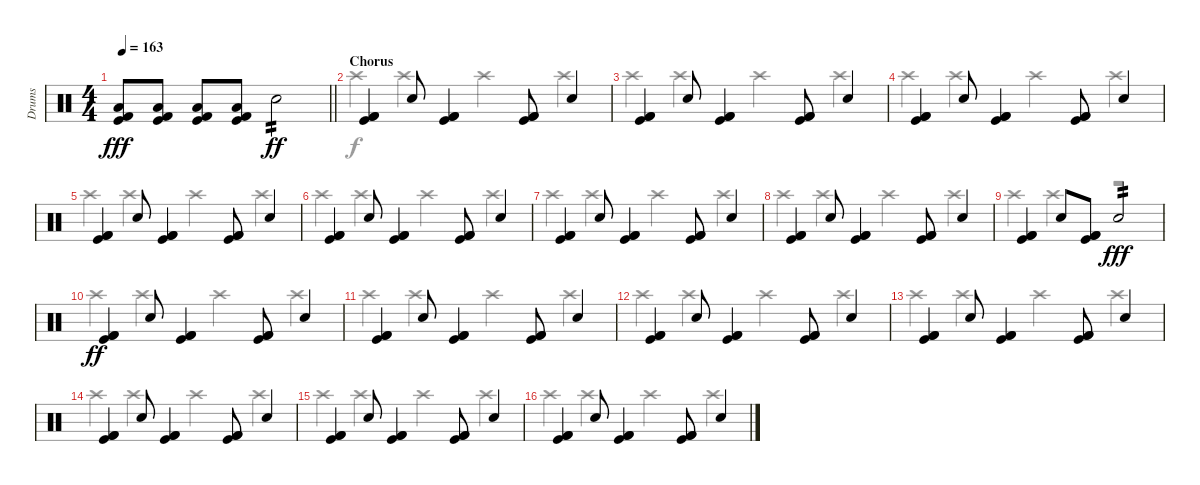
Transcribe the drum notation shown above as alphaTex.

\track ("Drums" "Drums") {instrument percussion}
\staff {score}
\articulation defaults
\voice
\ts (4 4)
\tempo 163
\clef neutral
\barLineRight lightlight
\ks c
("Low Tom (hit)" "Kick (hit)" "Kick (hit) 2").8{dy fff} ("Low Tom (hit)" "Kick (hit)" "Kick (hit) 2").8 ("Low Tom (hit)" "Kick (hit)" "Kick (hit) 2").8 ("Low Tom (hit)" "Kick (hit)" "Kick (hit) 2").8 "Electric Snare (hit)".2{tp 2 dy ff} |
\section ("" "Chorus")
("Kick (hit) 2" "Kick (hit) 2" "Kick (hit)").4 "Electric Snare (hit)".8 ("Kick (hit) 2" "Kick (hit) 2" "Kick (hit)").4 ("Kick (hit) 2" "Kick (hit) 2" "Kick (hit)").8 "Electric Snare (hit)".4 |
("Kick (hit) 2" "Kick (hit) 2" "Kick (hit)").4 "Electric Snare (hit)".8 ("Kick (hit) 2" "Kick (hit) 2" "Kick (hit)").4 ("Kick (hit) 2" "Kick (hit) 2" "Kick (hit)").8 "Electric Snare (hit)".4 |
("Kick (hit) 2" "Kick (hit) 2" "Kick (hit)").4 "Electric Snare (hit)".8 ("Kick (hit) 2" "Kick (hit) 2" "Kick (hit)").4 ("Kick (hit) 2" "Kick (hit) 2" "Kick (hit)").8 "Electric Snare (hit)".4 |
("Kick (hit) 2" "Kick (hit) 2" "Kick (hit)").4 "Electric Snare (hit)".8 ("Kick (hit) 2" "Kick (hit) 2" "Kick (hit)").4 ("Kick (hit) 2" "Kick (hit) 2" "Kick (hit)").8 "Electric Snare (hit)".4 |
("Kick (hit) 2" "Kick (hit) 2" "Kick (hit)").4 "Electric Snare (hit)".8 ("Kick (hit) 2" "Kick (hit) 2" "Kick (hit)").4 ("Kick (hit) 2" "Kick (hit) 2" "Kick (hit)").8 "Electric Snare (hit)".4 |
("Kick (hit) 2" "Kick (hit) 2" "Kick (hit)").4 "Electric Snare (hit)".8 ("Kick (hit) 2" "Kick (hit) 2" "Kick (hit)").4 ("Kick (hit) 2" "Kick (hit) 2" "Kick (hit)").8 "Electric Snare (hit)".4 |
("Kick (hit) 2" "Kick (hit) 2" "Kick (hit)").4 "Electric Snare (hit)".8 ("Kick (hit) 2" "Kick (hit) 2" "Kick (hit)").4 ("Kick (hit) 2" "Kick (hit) 2" "Kick (hit)").8 "Electric Snare (hit)".4 |
("Kick (hit) 2" "Kick (hit) 2" "Kick (hit)").4 "Electric Snare (hit)".8 ("Kick (hit) 2" "Kick (hit) 2" "Kick (hit)").8 "Electric Snare (hit)".2{tp 2 dy fff} |
("Kick (hit) 2" "Kick (hit) 2" "Kick (hit)").4{dy ff} "Electric Snare (hit)".8 ("Kick (hit) 2" "Kick (hit) 2" "Kick (hit)").4 ("Kick (hit) 2" "Kick (hit) 2" "Kick (hit)").8 "Electric Snare (hit)".4 |
("Kick (hit) 2" "Kick (hit) 2" "Kick (hit)").4 "Electric Snare (hit)".8 ("Kick (hit) 2" "Kick (hit) 2" "Kick (hit)").4 ("Kick (hit) 2" "Kick (hit) 2" "Kick (hit)").8 "Electric Snare (hit)".4 |
("Kick (hit) 2" "Kick (hit) 2" "Kick (hit)").4 "Electric Snare (hit)".8 ("Kick (hit) 2" "Kick (hit) 2" "Kick (hit)").4 ("Kick (hit) 2" "Kick (hit) 2" "Kick (hit)").8 "Electric Snare (hit)".4 |
("Kick (hit) 2" "Kick (hit) 2" "Kick (hit)").4 "Electric Snare (hit)".8 ("Kick (hit) 2" "Kick (hit) 2" "Kick (hit)").4 ("Kick (hit) 2" "Kick (hit) 2" "Kick (hit)").8 "Electric Snare (hit)".4 |
("Kick (hit) 2" "Kick (hit) 2" "Kick (hit)").4 "Electric Snare (hit)".8 ("Kick (hit) 2" "Kick (hit) 2" "Kick (hit)").4 ("Kick (hit) 2" "Kick (hit) 2" "Kick (hit)").8 "Electric Snare (hit)".4 |
("Kick (hit) 2" "Kick (hit) 2" "Kick (hit)").4 "Electric Snare (hit)".8 ("Kick (hit) 2" "Kick (hit) 2" "Kick (hit)").4 ("Kick (hit) 2" "Kick (hit) 2" "Kick (hit)").8 "Electric Snare (hit)".4 |
("Kick (hit) 2" "Kick (hit) 2" "Kick (hit)").4 "Electric Snare (hit)".8 ("Kick (hit) 2" "Kick (hit) 2" "Kick (hit)").4 ("Kick (hit) 2" "Kick (hit) 2" "Kick (hit)").8 "Electric Snare (hit)".4
\voice
\clef neutral
\ottava regular
\simile none
\barLineRight lightlight
\ks c
|
"Crash high (hit)".4{dy f} "Crash high (hit)".4 "Crash high (hit)".4 "Crash high (hit)".4 |
"Crash high (hit)".4 "Crash high (hit)".4 "Crash high (hit)".4 "Crash high (hit)".4 |
"Crash high (hit)".4 "Crash high (hit)".4 "Crash high (hit)".4 "Crash high (hit)".4 |
"Crash high (hit)".4 "Crash high (hit)".4 "Crash high (hit)".4 "Crash high (hit)".4 |
"Crash high (hit)".4 "Crash high (hit)".4 "Crash high (hit)".4 "Crash high (hit)".4 |
"Crash high (hit)".4 "Crash high (hit)".4 "Crash high (hit)".4 "Crash high (hit)".4 |
"Crash high (hit)".4 "Crash high (hit)".4 "Crash high (hit)".4 "Crash high (hit)".4 |
"Crash high (hit)".4 "Crash high (hit)".4 r.2 |
"Crash high (hit)".4 "Crash high (hit)".4 "Crash high (hit)".4 "Crash high (hit)".4 |
"Crash high (hit)".4 "Crash high (hit)".4 "Crash high (hit)".4 "Crash high (hit)".4 |
"Crash high (hit)".4 "Crash high (hit)".4 "Crash high (hit)".4 "Crash high (hit)".4 |
"Crash high (hit)".4 "Crash high (hit)".4 "Crash high (hit)".4 "Crash high (hit)".4 |
"Crash high (hit)".4 "Crash high (hit)".4 "Crash high (hit)".4 "Crash high (hit)".4 |
"Crash high (hit)".4 "Crash high (hit)".4 "Crash high (hit)".4 "Crash high (hit)".4 |
"Crash high (hit)".4 "Crash high (hit)".4 "Crash high (hit)".4 "Crash high (hit)".4
